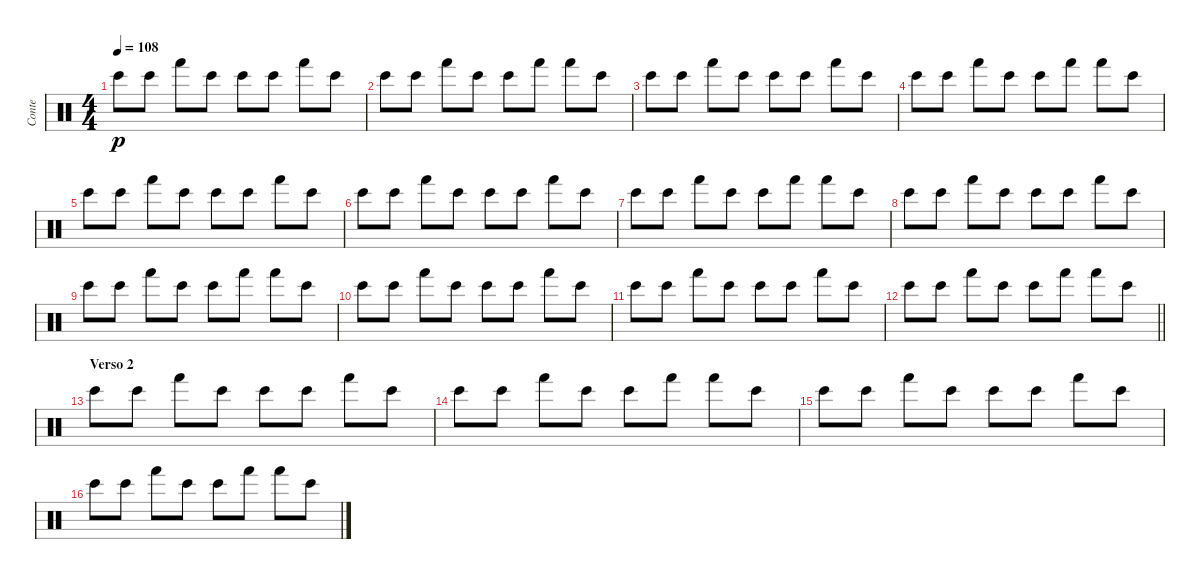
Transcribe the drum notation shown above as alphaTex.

\track ("Conte" "Conte") {instrument percussion}
\staff {score}
\articulation defaults
\ts (4 4)
\tempo 108
\clef neutral
\ks c "Bongo High (hit)".8{dy p} "Bongo High (hit)".8 "Hand (hit)".8 "Bongo High (hit)".8 "Bongo High (hit)".8 "Bongo High (hit)".8 "Hand (hit)".8 "Bongo High (hit)".8
|
"Bongo High (hit)".8 "Bongo High (hit)".8 "Hand (hit)".8 "Bongo High (hit)".8 "Bongo High (hit)".8 "Hand (hit)".8 "Hand (hit)".8 "Bongo High (hit)".8 |
"Bongo High (hit)".8 "Bongo High (hit)".8 "Hand (hit)".8 "Bongo High (hit)".8 "Bongo High (hit)".8 "Bongo High (hit)".8 "Hand (hit)".8 "Bongo High (hit)".8 |
"Bongo High (hit)".8 "Bongo High (hit)".8 "Hand (hit)".8 "Bongo High (hit)".8 "Bongo High (hit)".8 "Hand (hit)".8 "Hand (hit)".8 "Bongo High (hit)".8 |
"Bongo High (hit)".8 "Bongo High (hit)".8 "Hand (hit)".8 "Bongo High (hit)".8 "Bongo High (hit)".8 "Bongo High (hit)".8 "Hand (hit)".8 "Bongo High (hit)".8 |
"Bongo High (hit)".8 "Bongo High (hit)".8 "Hand (hit)".8 "Bongo High (hit)".8 "Bongo High (hit)".8 "Bongo High (hit)".8 "Hand (hit)".8 "Bongo High (hit)".8 |
"Bongo High (hit)".8 "Bongo High (hit)".8 "Hand (hit)".8 "Bongo High (hit)".8 "Bongo High (hit)".8 "Hand (hit)".8 "Hand (hit)".8 "Bongo High (hit)".8 |
"Bongo High (hit)".8 "Bongo High (hit)".8 "Hand (hit)".8 "Bongo High (hit)".8 "Bongo High (hit)".8 "Bongo High (hit)".8 "Hand (hit)".8 "Bongo High (hit)".8 |
"Bongo High (hit)".8 "Bongo High (hit)".8 "Hand (hit)".8 "Bongo High (hit)".8 "Bongo High (hit)".8 "Hand (hit)".8 "Hand (hit)".8 "Bongo High (hit)".8 |
"Bongo High (hit)".8 "Bongo High (hit)".8 "Hand (hit)".8 "Bongo High (hit)".8 "Bongo High (hit)".8 "Bongo High (hit)".8 "Hand (hit)".8 "Bongo High (hit)".8 |
"Bongo High (hit)".8 "Bongo High (hit)".8 "Hand (hit)".8 "Bongo High (hit)".8 "Bongo High (hit)".8 "Bongo High (hit)".8 "Hand (hit)".8 "Bongo High (hit)".8 |
\barLineRight lightlight "Bongo High (hit)".8 "Bongo High (hit)".8 "Hand (hit)".8 "Bongo High (hit)".8 "Bongo High (hit)".8 "Hand (hit)".8 "Hand (hit)".8 "Bongo High (hit)".8
|
\section ("" "Verso 2")
"Bongo High (hit)".8 "Bongo High (hit)".8 "Hand (hit)".8 "Bongo High (hit)".8 "Bongo High (hit)".8 "Bongo High (hit)".8 "Hand (hit)".8 "Bongo High (hit)".8 |
"Bongo High (hit)".8 "Bongo High (hit)".8 "Hand (hit)".8 "Bongo High (hit)".8 "Bongo High (hit)".8 "Hand (hit)".8 "Hand (hit)".8 "Bongo High (hit)".8 |
"Bongo High (hit)".8 "Bongo High (hit)".8 "Hand (hit)".8 "Bongo High (hit)".8 "Bongo High (hit)".8 "Bongo High (hit)".8 "Hand (hit)".8 "Bongo High (hit)".8 |
"Bongo High (hit)".8 "Bongo High (hit)".8 "Hand (hit)".8 "Bongo High (hit)".8 "Bongo High (hit)".8 "Hand (hit)".8 "Hand (hit)".8 "Bongo High (hit)".8
